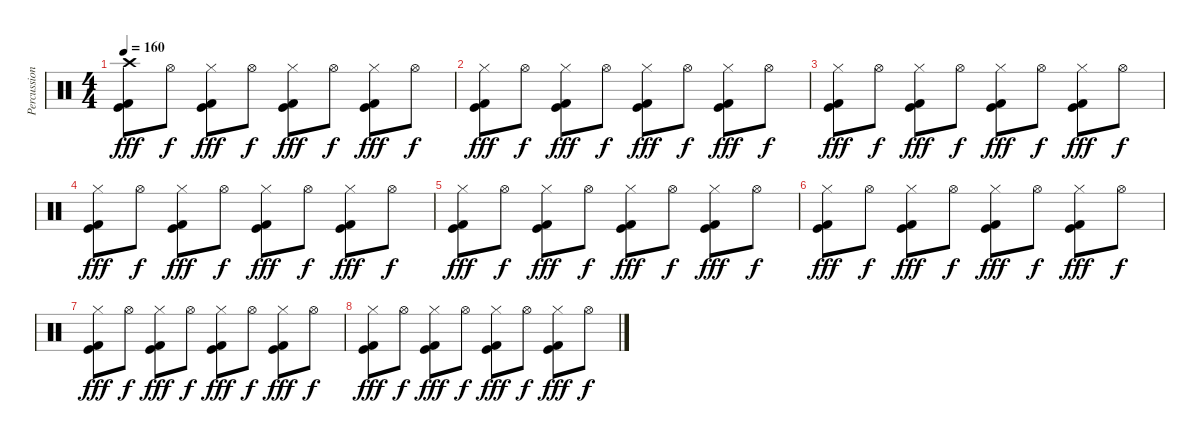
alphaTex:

\track ("Percussions" "Percussion") {instrument percussion}
\staff {score}
\articulation defaults
\ts (4 4)
\tempo 160
\clef neutral
\ks c
("Crash high (hit)" "Kick (hit) 2" "Kick (hit)").8{dy fff volume 4} "Hi-Hat (open)".8{dy f} ("Hi-Hat (closed)" "Kick (hit) 2" "Kick (hit)").8{dy fff} "Hi-Hat (open)".8{dy f} ("Hi-Hat (closed)" "Kick (hit) 2" "Kick (hit)").8{dy fff} "Hi-Hat (open)".8{dy f} ("Hi-Hat (closed)" "Kick (hit) 2" "Kick (hit)").8{dy fff} "Hi-Hat (open)".8{dy f} |
("Hi-Hat (closed)" "Kick (hit) 2" "Kick (hit)").8{dy fff} "Hi-Hat (open)".8{dy f} ("Hi-Hat (closed)" "Kick (hit) 2" "Kick (hit)").8{dy fff} "Hi-Hat (open)".8{dy f} ("Hi-Hat (closed)" "Kick (hit) 2" "Kick (hit)").8{dy fff} "Hi-Hat (open)".8{dy f} ("Hi-Hat (closed)" "Kick (hit) 2" "Kick (hit)").8{dy fff} "Hi-Hat (open)".8{dy f} |
("Hi-Hat (closed)" "Kick (hit) 2" "Kick (hit)").8{dy fff} "Hi-Hat (open)".8{dy f} ("Hi-Hat (closed)" "Kick (hit) 2" "Kick (hit)").8{dy fff} "Hi-Hat (open)".8{dy f} ("Hi-Hat (closed)" "Kick (hit) 2" "Kick (hit)").8{dy fff} "Hi-Hat (open)".8{dy f} ("Hi-Hat (closed)" "Kick (hit) 2" "Kick (hit)").8{dy fff} "Hi-Hat (open)".8{dy f} |
("Hi-Hat (closed)" "Kick (hit) 2" "Kick (hit)").8{dy fff} "Hi-Hat (open)".8{dy f} ("Hi-Hat (closed)" "Kick (hit) 2" "Kick (hit)").8{dy fff} "Hi-Hat (open)".8{dy f} ("Hi-Hat (closed)" "Kick (hit) 2" "Kick (hit)").8{dy fff} "Hi-Hat (open)".8{dy f} ("Hi-Hat (closed)" "Kick (hit) 2" "Kick (hit)").8{dy fff} "Hi-Hat (open)".8{dy f} |
("Hi-Hat (closed)" "Kick (hit) 2" "Kick (hit)").8{dy fff volume 2} "Hi-Hat (open)".8{dy f} ("Hi-Hat (closed)" "Kick (hit) 2" "Kick (hit)").8{dy fff} "Hi-Hat (open)".8{dy f} ("Hi-Hat (closed)" "Kick (hit) 2" "Kick (hit)").8{dy fff} "Hi-Hat (open)".8{dy f} ("Hi-Hat (closed)" "Kick (hit) 2" "Kick (hit)").8{dy fff} "Hi-Hat (open)".8{dy f} |
("Hi-Hat (closed)" "Kick (hit) 2" "Kick (hit)").8{dy fff} "Hi-Hat (open)".8{dy f} ("Hi-Hat (closed)" "Kick (hit) 2" "Kick (hit)").8{dy fff} "Hi-Hat (open)".8{dy f} ("Hi-Hat (closed)" "Kick (hit) 2" "Kick (hit)").8{dy fff} "Hi-Hat (open)".8{dy f} ("Hi-Hat (closed)" "Kick (hit) 2" "Kick (hit)").8{dy fff} "Hi-Hat (open)".8{dy f} |
("Hi-Hat (closed)" "Kick (hit) 2" "Kick (hit)").8{dy fff} "Hi-Hat (open)".8{dy f} ("Hi-Hat (closed)" "Kick (hit) 2" "Kick (hit)").8{dy fff} "Hi-Hat (open)".8{dy f} ("Hi-Hat (closed)" "Kick (hit) 2" "Kick (hit)").8{dy fff} "Hi-Hat (open)".8{dy f} ("Hi-Hat (closed)" "Kick (hit) 2" "Kick (hit)").8{dy fff} "Hi-Hat (open)".8{dy f} |
("Hi-Hat (closed)" "Kick (hit) 2" "Kick (hit)").8{dy fff} "Hi-Hat (open)".8{dy f} ("Hi-Hat (closed)" "Kick (hit) 2" "Kick (hit)").8{dy fff} "Hi-Hat (open)".8{dy f} ("Hi-Hat (closed)" "Kick (hit) 2" "Kick (hit)").8{dy fff} "Hi-Hat (open)".8{dy f} ("Hi-Hat (closed)" "Kick (hit) 2" "Kick (hit)").8{dy fff} "Hi-Hat (open)".8{dy f}
